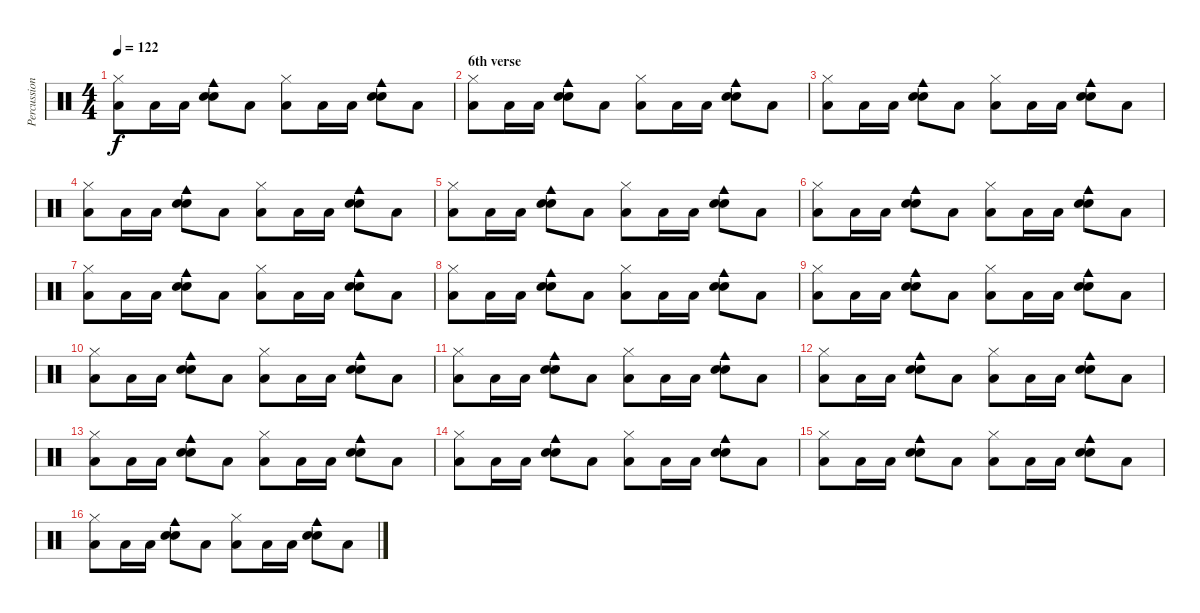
\track ("Percussion" "Percussion") {instrument percussion}
\staff {score}
\articulation defaults
\ts (4 4)
\tempo 122
\clef neutral
\ks c
("Hi-Hat (closed)" "Low Tom (hit)").8{dy f} "Low Tom (hit)".16 "Low Tom (hit)".16 ("Snare (hit) 2" "Electric Snare (hit)" "Cowbell medium (hit)").8 "Low Tom (hit)".8 ("Hi-Hat (closed)" "Low Tom (hit)").8 "Low Tom (hit)".16 "Low Tom (hit)".16 ("Snare (hit) 2" "Electric Snare (hit)" "Cowbell medium (hit)").8 "Low Tom (hit)".8 |
\section ("" "6th verse")
("Hi-Hat (closed)" "Low Tom (hit)").8 "Low Tom (hit)".16 "Low Tom (hit)".16 ("Snare (hit) 2" "Electric Snare (hit)" "Cowbell medium (hit)").8 "Low Tom (hit)".8 ("Hi-Hat (closed)" "Low Tom (hit)").8 "Low Tom (hit)".16 "Low Tom (hit)".16 ("Snare (hit) 2" "Electric Snare (hit)" "Cowbell medium (hit)").8 "Low Tom (hit)".8 |
("Hi-Hat (closed)" "Low Tom (hit)").8 "Low Tom (hit)".16 "Low Tom (hit)".16 ("Snare (hit) 2" "Electric Snare (hit)" "Cowbell medium (hit)").8 "Low Tom (hit)".8 ("Hi-Hat (closed)" "Low Tom (hit)").8 "Low Tom (hit)".16 "Low Tom (hit)".16 ("Snare (hit) 2" "Electric Snare (hit)" "Cowbell medium (hit)").8 "Low Tom (hit)".8 |
("Hi-Hat (closed)" "Low Tom (hit)").8 "Low Tom (hit)".16 "Low Tom (hit)".16 ("Snare (hit) 2" "Electric Snare (hit)" "Cowbell medium (hit)").8 "Low Tom (hit)".8 ("Hi-Hat (closed)" "Low Tom (hit)").8 "Low Tom (hit)".16 "Low Tom (hit)".16 ("Snare (hit) 2" "Electric Snare (hit)" "Cowbell medium (hit)").8 "Low Tom (hit)".8 |
("Hi-Hat (closed)" "Low Tom (hit)").8 "Low Tom (hit)".16 "Low Tom (hit)".16 ("Snare (hit) 2" "Electric Snare (hit)" "Cowbell medium (hit)").8 "Low Tom (hit)".8 ("Hi-Hat (closed)" "Low Tom (hit)").8 "Low Tom (hit)".16 "Low Tom (hit)".16 ("Snare (hit) 2" "Electric Snare (hit)" "Cowbell medium (hit)").8 "Low Tom (hit)".8 |
("Hi-Hat (closed)" "Low Tom (hit)").8 "Low Tom (hit)".16 "Low Tom (hit)".16 ("Snare (hit) 2" "Electric Snare (hit)" "Cowbell medium (hit)").8 "Low Tom (hit)".8 ("Hi-Hat (closed)" "Low Tom (hit)").8 "Low Tom (hit)".16 "Low Tom (hit)".16 ("Snare (hit) 2" "Electric Snare (hit)" "Cowbell medium (hit)").8 "Low Tom (hit)".8 |
("Hi-Hat (closed)" "Low Tom (hit)").8 "Low Tom (hit)".16 "Low Tom (hit)".16 ("Snare (hit) 2" "Electric Snare (hit)" "Cowbell medium (hit)").8 "Low Tom (hit)".8 ("Hi-Hat (closed)" "Low Tom (hit)").8 "Low Tom (hit)".16 "Low Tom (hit)".16 ("Snare (hit) 2" "Electric Snare (hit)" "Cowbell medium (hit)").8 "Low Tom (hit)".8 |
("Hi-Hat (closed)" "Low Tom (hit)").8 "Low Tom (hit)".16 "Low Tom (hit)".16 ("Snare (hit) 2" "Electric Snare (hit)" "Cowbell medium (hit)").8 "Low Tom (hit)".8 ("Hi-Hat (closed)" "Low Tom (hit)").8 "Low Tom (hit)".16 "Low Tom (hit)".16 ("Snare (hit) 2" "Electric Snare (hit)" "Cowbell medium (hit)").8 "Low Tom (hit)".8 |
("Hi-Hat (closed)" "Low Tom (hit)").8 "Low Tom (hit)".16 "Low Tom (hit)".16 ("Snare (hit) 2" "Electric Snare (hit)" "Cowbell medium (hit)").8 "Low Tom (hit)".8 ("Hi-Hat (closed)" "Low Tom (hit)").8 "Low Tom (hit)".16 "Low Tom (hit)".16 ("Snare (hit) 2" "Electric Snare (hit)" "Cowbell medium (hit)").8 "Low Tom (hit)".8 |
("Hi-Hat (closed)" "Low Tom (hit)").8 "Low Tom (hit)".16 "Low Tom (hit)".16 ("Snare (hit) 2" "Electric Snare (hit)" "Cowbell medium (hit)").8 "Low Tom (hit)".8 ("Hi-Hat (closed)" "Low Tom (hit)").8 "Low Tom (hit)".16 "Low Tom (hit)".16 ("Snare (hit) 2" "Electric Snare (hit)" "Cowbell medium (hit)").8 "Low Tom (hit)".8 |
("Hi-Hat (closed)" "Low Tom (hit)").8 "Low Tom (hit)".16 "Low Tom (hit)".16 ("Snare (hit) 2" "Electric Snare (hit)" "Cowbell medium (hit)").8 "Low Tom (hit)".8 ("Hi-Hat (closed)" "Low Tom (hit)").8 "Low Tom (hit)".16 "Low Tom (hit)".16 ("Snare (hit) 2" "Electric Snare (hit)" "Cowbell medium (hit)").8 "Low Tom (hit)".8 |
("Hi-Hat (closed)" "Low Tom (hit)").8 "Low Tom (hit)".16 "Low Tom (hit)".16 ("Snare (hit) 2" "Electric Snare (hit)" "Cowbell medium (hit)").8 "Low Tom (hit)".8 ("Hi-Hat (closed)" "Low Tom (hit)").8 "Low Tom (hit)".16 "Low Tom (hit)".16 ("Snare (hit) 2" "Electric Snare (hit)" "Cowbell medium (hit)").8 "Low Tom (hit)".8 |
("Hi-Hat (closed)" "Low Tom (hit)").8 "Low Tom (hit)".16 "Low Tom (hit)".16 ("Snare (hit) 2" "Electric Snare (hit)" "Cowbell medium (hit)").8 "Low Tom (hit)".8 ("Hi-Hat (closed)" "Low Tom (hit)").8 "Low Tom (hit)".16 "Low Tom (hit)".16 ("Snare (hit) 2" "Electric Snare (hit)" "Cowbell medium (hit)").8 "Low Tom (hit)".8 |
("Hi-Hat (closed)" "Low Tom (hit)").8 "Low Tom (hit)".16 "Low Tom (hit)".16 ("Snare (hit) 2" "Electric Snare (hit)" "Cowbell medium (hit)").8 "Low Tom (hit)".8 ("Hi-Hat (closed)" "Low Tom (hit)").8 "Low Tom (hit)".16 "Low Tom (hit)".16 ("Snare (hit) 2" "Electric Snare (hit)" "Cowbell medium (hit)").8 "Low Tom (hit)".8 |
("Hi-Hat (closed)" "Low Tom (hit)").8 "Low Tom (hit)".16 "Low Tom (hit)".16 ("Snare (hit) 2" "Electric Snare (hit)" "Cowbell medium (hit)").8 "Low Tom (hit)".8 ("Hi-Hat (closed)" "Low Tom (hit)").8 "Low Tom (hit)".16 "Low Tom (hit)".16 ("Snare (hit) 2" "Electric Snare (hit)" "Cowbell medium (hit)").8 "Low Tom (hit)".8 |
("Hi-Hat (closed)" "Low Tom (hit)").8 "Low Tom (hit)".16 "Low Tom (hit)".16 ("Snare (hit) 2" "Electric Snare (hit)" "Cowbell medium (hit)").8 "Low Tom (hit)".8 ("Hi-Hat (closed)" "Low Tom (hit)").8 "Low Tom (hit)".16 "Low Tom (hit)".16 ("Snare (hit) 2" "Electric Snare (hit)" "Cowbell medium (hit)").8 "Low Tom (hit)".8
